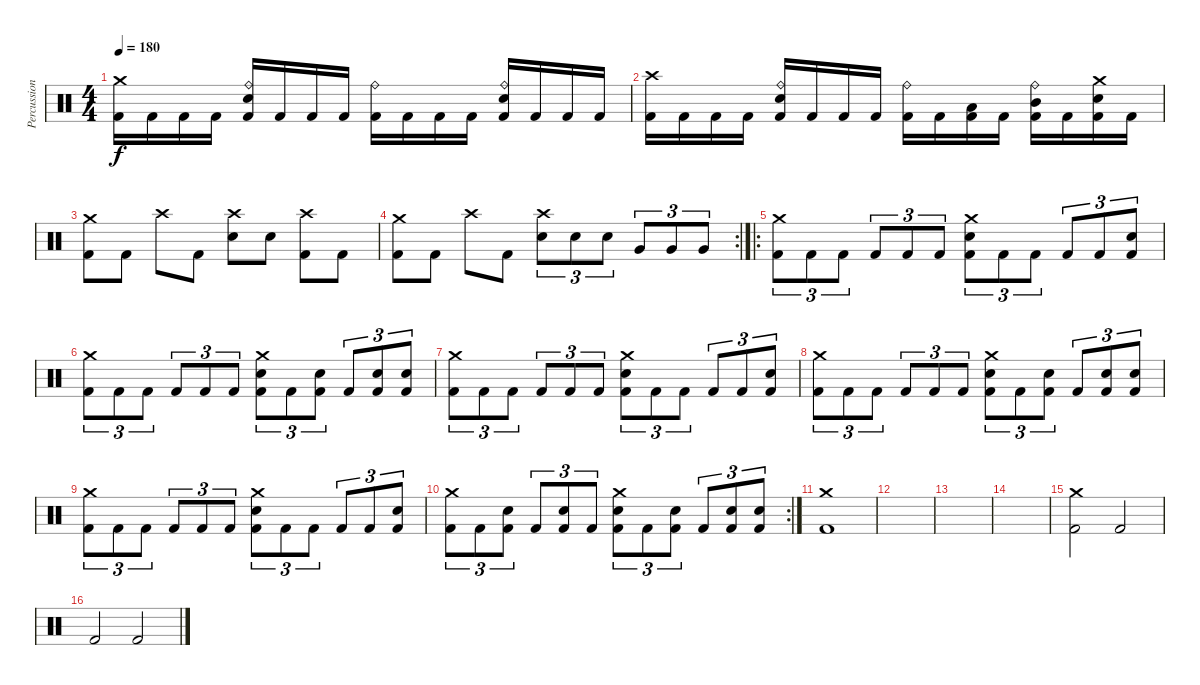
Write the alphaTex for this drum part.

\track ("Percussion" "Percussion") {instrument percussion}
\staff {score}
\articulation defaults
\ts (4 4)
\tempo 180
\clef neutral
\ks c
("Crash medium (hit)" "Kick (hit) 2").16{dy f} "Kick (hit) 2".16 "Kick (hit) 2".16 "Kick (hit) 2".16 ("Ride (bell)" "Electric Snare (hit)" "Kick (hit) 2").16 "Kick (hit) 2".16 "Kick (hit) 2".16 "Kick (hit) 2".16 ("Ride (bell)" "Kick (hit) 2").16 "Kick (hit) 2".16 "Kick (hit) 2".16 "Kick (hit) 2".16 ("Ride (bell)" "Electric Snare (hit)" "Kick (hit) 2").16 "Kick (hit) 2".16 "Kick (hit) 2".16 "Kick (hit) 2".16 |
("Crash high (hit)" "Kick (hit) 2").16 "Kick (hit) 2".16 "Kick (hit) 2".16 "Kick (hit) 2".16 ("Ride (bell)" "Electric Snare (hit)" "Kick (hit) 2").16 "Kick (hit) 2".16 "Kick (hit) 2".16 "Kick (hit) 2".16 ("Ride (bell)" "Kick (hit) 2").16 "Kick (hit) 2".16 ("Low Tom (hit)" "Kick (hit) 2").16 "Kick (hit) 2".16 ("Ride (bell)" "Mid Tom (hit)" "Kick (hit) 2").16 "Kick (hit) 2".16 ("Crash medium (hit)" "Electric Snare (hit)" "Kick (hit) 2").16 "Kick (hit) 2".16 |
("Crash medium (hit)" "Kick (hit) 2").8 "Kick (hit) 2".8 "Crash high (hit)".8 "Kick (hit) 2".8 ("Crash high (hit)" "Electric Snare (hit)").8 "Electric Snare (hit)".8 ("Crash high (hit)" "Kick (hit) 2").8 "Kick (hit) 2".8 |
\rc 2
("Crash medium (hit)" "Kick (hit) 2").8 "Kick (hit) 2".8 "Crash high (hit)".8 "Kick (hit) 2".8 ("Crash high (hit)" "Electric Snare (hit)").8{tu (3 2)} "Electric Snare (hit)".8{tu (3 2)} "Electric Snare (hit)".8{tu (3 2)} "Very Low Tom (hit)".8{tu (3 2)} "Very Low Tom (hit)".8{tu (3 2)} "Very Low Tom (hit)".8{tu (3 2)} |
\ro
("Crash medium (hit)" "Kick (hit) 2").8{tu (3 2)} "Kick (hit) 2".8{tu (3 2)} "Kick (hit) 2".8{tu (3 2)} "Kick (hit) 2".8{tu (3 2)} "Kick (hit) 2".8{tu (3 2)} "Kick (hit) 2".8{tu (3 2)} ("Crash medium (hit)" "Electric Snare (hit)" "Kick (hit) 2").8{tu (3 2)} "Kick (hit) 2".8{tu (3 2)} "Kick (hit) 2".8{tu (3 2)} "Kick (hit) 2".8{tu (3 2)} "Kick (hit) 2".8{tu (3 2)} ("Electric Snare (hit)" "Kick (hit) 2").8{tu (3 2)} |
("Crash medium (hit)" "Kick (hit) 2").8{tu (3 2)} "Kick (hit) 2".8{tu (3 2)} "Kick (hit) 2".8{tu (3 2)} "Kick (hit) 2".8{tu (3 2)} "Kick (hit) 2".8{tu (3 2)} "Kick (hit) 2".8{tu (3 2)} ("Crash medium (hit)" "Electric Snare (hit)" "Kick (hit) 2").8{tu (3 2)} "Kick (hit) 2".8{tu (3 2)} ("Electric Snare (hit)" "Kick (hit) 2").8{tu (3 2)} "Kick (hit) 2".8{tu (3 2)} ("Electric Snare (hit)" "Kick (hit) 2").8{tu (3 2)} ("Electric Snare (hit)" "Kick (hit) 2").8{tu (3 2)} |
("Crash medium (hit)" "Kick (hit) 2").8{tu (3 2)} "Kick (hit) 2".8{tu (3 2)} "Kick (hit) 2".8{tu (3 2)} "Kick (hit) 2".8{tu (3 2)} "Kick (hit) 2".8{tu (3 2)} "Kick (hit) 2".8{tu (3 2)} ("Crash medium (hit)" "Electric Snare (hit)" "Kick (hit) 2").8{tu (3 2)} "Kick (hit) 2".8{tu (3 2)} "Kick (hit) 2".8{tu (3 2)} "Kick (hit) 2".8{tu (3 2)} "Kick (hit) 2".8{tu (3 2)} ("Electric Snare (hit)" "Kick (hit) 2").8{tu (3 2)} |
("Crash medium (hit)" "Kick (hit) 2").8{tu (3 2)} "Kick (hit) 2".8{tu (3 2)} "Kick (hit) 2".8{tu (3 2)} "Kick (hit) 2".8{tu (3 2)} "Kick (hit) 2".8{tu (3 2)} "Kick (hit) 2".8{tu (3 2)} ("Crash medium (hit)" "Electric Snare (hit)" "Kick (hit) 2").8{tu (3 2)} "Kick (hit) 2".8{tu (3 2)} ("Electric Snare (hit)" "Kick (hit) 2").8{tu (3 2)} "Kick (hit) 2".8{tu (3 2)} ("Electric Snare (hit)" "Kick (hit) 2").8{tu (3 2)} ("Electric Snare (hit)" "Kick (hit) 2").8{tu (3 2)} |
("Crash medium (hit)" "Kick (hit) 2").8{tu (3 2)} "Kick (hit) 2".8{tu (3 2)} "Kick (hit) 2".8{tu (3 2)} "Kick (hit) 2".8{tu (3 2)} "Kick (hit) 2".8{tu (3 2)} "Kick (hit) 2".8{tu (3 2)} ("Crash medium (hit)" "Electric Snare (hit)" "Kick (hit) 2").8{tu (3 2)} "Kick (hit) 2".8{tu (3 2)} "Kick (hit) 2".8{tu (3 2)} "Kick (hit) 2".8{tu (3 2)} "Kick (hit) 2".8{tu (3 2)} ("Electric Snare (hit)" "Kick (hit) 2").8{tu (3 2)} |
\rc 2
("Crash medium (hit)" "Kick (hit) 2").8{tu (3 2)} "Kick (hit) 2".8{tu (3 2)} ("Electric Snare (hit)" "Kick (hit) 2").8{tu (3 2)} "Kick (hit) 2".8{tu (3 2)} ("Electric Snare (hit)" "Kick (hit) 2").8{tu (3 2)} "Kick (hit) 2".8{tu (3 2)} ("Crash medium (hit)" "Electric Snare (hit)" "Kick (hit) 2").8{tu (3 2)} "Kick (hit) 2".8{tu (3 2)} ("Electric Snare (hit)" "Kick (hit) 2").8{tu (3 2)} "Kick (hit) 2".8{tu (3 2)} ("Electric Snare (hit)" "Kick (hit) 2").8{tu (3 2)} ("Electric Snare (hit)" "Kick (hit) 2").8{tu (3 2)} |
("Crash medium (hit)" "Kick (hit) 2").1 |
|
|
|
("Crash medium (hit)" "Kick (hit) 2").2 "Kick (hit) 2".2 |
"Kick (hit) 2".2 "Kick (hit) 2".2
